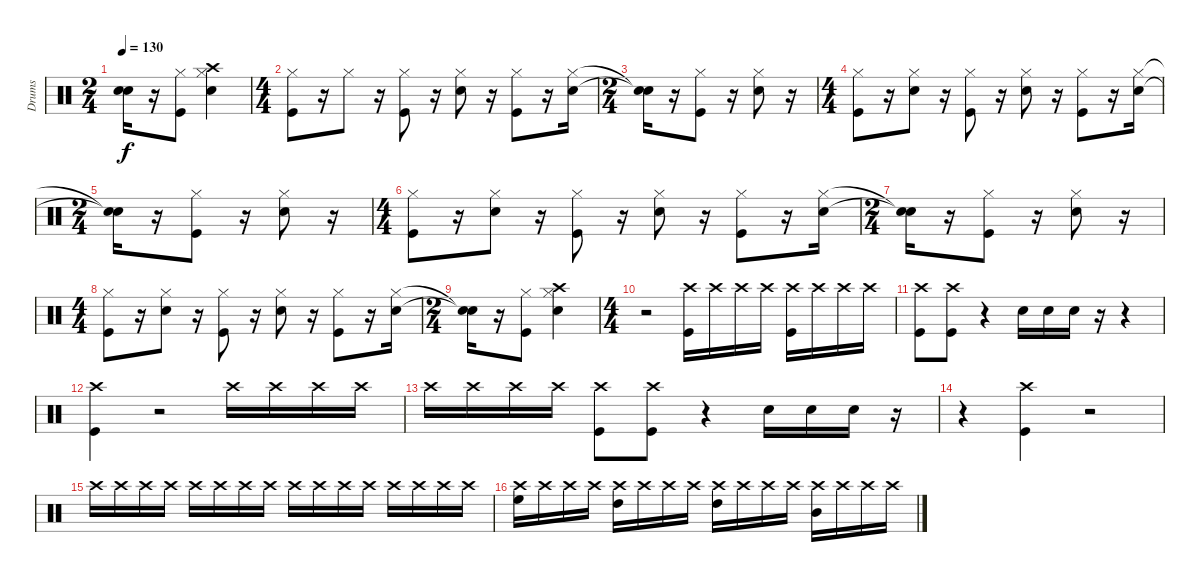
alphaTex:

\track ("Drums" "Drums") {instrument percussion}
\staff {score}
\articulation defaults
\ts (2 4)
\tempo 130
\clef neutral
\ks c
("Snare (hit)"{t} "Snare (hit)"{t}).16{dy f} r.16 ("Hi-Hat (closed)" "Kick (hit)").8 ("Hi-Hat (closed)" "Snare (hit) 2" "Crash high (hit)").4 |
\ts (4 4)
("Hi-Hat (closed)" "Kick (hit)").8 r.16 "Hi-Hat (closed)".8 r.16 ("Hi-Hat (closed)" "Kick (hit)").8 r.16 ("Hi-Hat (closed)" "Snare (hit) 2").8 r.16 ("Hi-Hat (closed)" "Kick (hit)").8 r.16 ("Hi-Hat (closed)" "Snare (hit) 2").16 |
\ts (2 4)
("Snare (hit)"{t} "Snare (hit)"{t}).16 r.16 ("Hi-Hat (closed)" "Kick (hit)").8 r.16 ("Hi-Hat (closed)" "Snare (hit) 2").8 r.16 |
\ts (4 4)
("Hi-Hat (closed)" "Kick (hit)").8 r.16 ("Hi-Hat (closed)" "Snare (hit) 2").8 r.16 ("Hi-Hat (closed)" "Kick (hit)").8 r.16 ("Hi-Hat (closed)" "Snare (hit) 2").8 r.16 ("Hi-Hat (closed)" "Kick (hit)").8 r.16 ("Hi-Hat (closed)" "Snare (hit) 2").16 |
\ts (2 4)
("Snare (hit)"{t} "Snare (hit)"{t}).16 r.16 ("Hi-Hat (closed)" "Kick (hit)").8 r.16 ("Hi-Hat (closed)" "Snare (hit) 2").8 r.16 |
\ts (4 4)
("Hi-Hat (closed)" "Kick (hit)").8 r.16 ("Hi-Hat (closed)" "Snare (hit) 2").8 r.16 ("Hi-Hat (closed)" "Kick (hit)").8 r.16 ("Hi-Hat (closed)" "Snare (hit) 2").8 r.16 ("Hi-Hat (closed)" "Kick (hit)").8 r.16 ("Hi-Hat (closed)" "Snare (hit) 2").16 |
\ts (2 4)
("Snare (hit)"{t} "Snare (hit)"{t}).16 r.16 ("Hi-Hat (closed)" "Kick (hit)").8 r.16 ("Hi-Hat (closed)" "Snare (hit) 2").8 r.16 |
\ts (4 4)
("Hi-Hat (closed)" "Kick (hit)").8 r.16 ("Hi-Hat (closed)" "Snare (hit) 2").8 r.16 ("Hi-Hat (closed)" "Kick (hit)").8 r.16 ("Hi-Hat (closed)" "Snare (hit) 2").8 r.16 ("Hi-Hat (closed)" "Kick (hit)").8 r.16 ("Hi-Hat (closed)" "Snare (hit) 2").16 |
\ts (2 4)
("Snare (hit)"{t} "Snare (hit)"{t}).16 r.16 ("Hi-Hat (closed)" "Kick (hit)").8 ("Hi-Hat (closed)" "Snare (hit) 2" "Crash high (hit)").4 |
\ts (4 4)
r.2 ("Crash high (hit)" "Kick (hit)").16{volume 8} "Crash high (hit)".16 "Crash high (hit)".16{volume 10} "Crash high (hit)".16 ("Crash high (hit)" "Kick (hit)").16{volume 12} "Crash high (hit)".16 "Crash high (hit)".16{volume 14} "Crash high (hit)".16 |
("Crash high (hit)" "Kick (hit)").8 ("Crash high (hit)" "Kick (hit)").8 r.4 "Snare (hit) 2".16 "Snare (hit) 2".16 "Snare (hit) 2".16 r.16 r.4 |
("Kick (hit)" "Crash high (hit)").4 r.2 "Crash high (hit)".16{volume 8} "Crash high (hit)".16 "Crash high (hit)".16{volume 10} "Crash high (hit)".16 |
"Crash high (hit)".16{volume 12} "Crash high (hit)".16 "Crash high (hit)".16{volume 14} "Crash high (hit)".16 ("Crash high (hit)" "Kick (hit)").8 ("Crash high (hit)" "Kick (hit)").8 r.4 "Snare (hit) 2".16 "Snare (hit) 2".16 "Snare (hit) 2".16 r.16 |
r.4 ("Kick (hit)" "Crash high (hit)").4 r.2 |
"Crash high (hit)".16{volume 10} "Crash high (hit)".16 "Crash high (hit)".16 "Crash high (hit)".16 "Crash high (hit)".16 "Crash high (hit)".16 "Crash high (hit)".16 "Crash high (hit)".16 "Crash high (hit)".16 "Crash high (hit)".16 "Crash high (hit)".16 "Crash high (hit)".16 "Crash high (hit)".16 "Crash high (hit)".16 "Crash high (hit)".16 "Crash high (hit)".16 |
("High Floor Tom (hit)" "Crash high (hit)").16 "Crash high (hit)".16 "Crash high (hit)".16 "Crash high (hit)".16 ("High Tom (hit)" "Crash high (hit)").16 "Crash high (hit)".16 "Crash high (hit)".16 "Crash high (hit)".16 ("High Tom (hit)" "Crash high (hit)").16 "Crash high (hit)".16 "Crash high (hit)".16 "Crash high (hit)".16 ("Mid Tom (hit)" "Crash high (hit)").16 "Crash high (hit)".16 "Crash high (hit)".16 "Crash high (hit)".16
